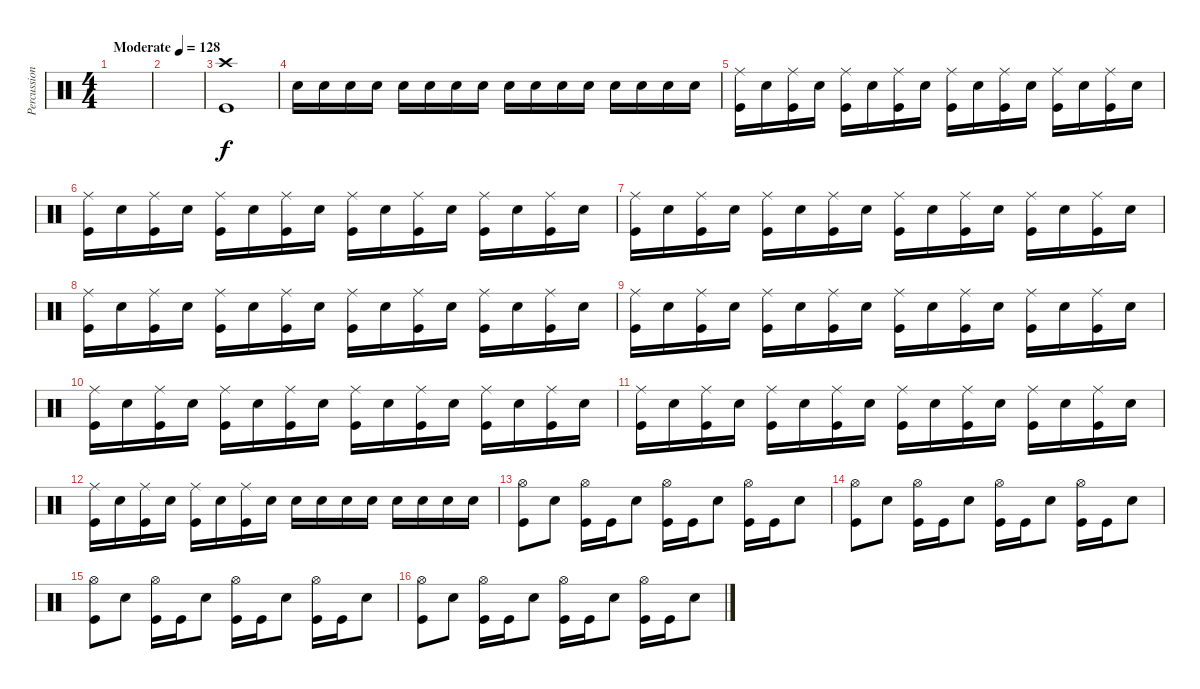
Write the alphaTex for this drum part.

\track ("Percussion" "Percussion") {instrument percussion}
\staff {score}
\articulation defaults
\ts (4 4)
\tempo (128 "Moderate")
\clef neutral
\ks c
|
|
("Crash high (hit)" "Kick (hit)").1 |
"Electric Snare (hit)".16{volume 3} "Electric Snare (hit)".16{volume 4} "Electric Snare (hit)".16 "Electric Snare (hit)".16{volume 5} "Electric Snare (hit)".16 "Electric Snare (hit)".16{volume 7} "Electric Snare (hit)".16 "Electric Snare (hit)".16{volume 7} "Electric Snare (hit)".16 "Electric Snare (hit)".16 "Electric Snare (hit)".16{volume 10} "Electric Snare (hit)".16 "Electric Snare (hit)".16{volume 13} "Electric Snare (hit)".16 "Electric Snare (hit)".16 "Electric Snare (hit)".16 |
("Ride (middle)" "Kick (hit)").16 "Electric Snare (hit)".16 ("Ride (middle)" "Kick (hit)").16 "Electric Snare (hit)".16 ("Ride (middle)" "Kick (hit)").16 "Electric Snare (hit)".16 ("Ride (middle)" "Kick (hit)").16 "Electric Snare (hit)".16 ("Ride (middle)" "Kick (hit)").16 "Electric Snare (hit)".16 ("Ride (middle)" "Kick (hit)").16 "Electric Snare (hit)".16 ("Ride (middle)" "Kick (hit)").16 "Electric Snare (hit)".16 ("Ride (middle)" "Kick (hit)").16 "Electric Snare (hit)".16 |
("Ride (middle)" "Kick (hit)").16 "Electric Snare (hit)".16 ("Ride (middle)" "Kick (hit)").16 "Electric Snare (hit)".16 ("Ride (middle)" "Kick (hit)").16 "Electric Snare (hit)".16 ("Ride (middle)" "Kick (hit)").16 "Electric Snare (hit)".16 ("Ride (middle)" "Kick (hit)").16 "Electric Snare (hit)".16 ("Ride (middle)" "Kick (hit)").16 "Electric Snare (hit)".16 ("Ride (middle)" "Kick (hit)").16 "Electric Snare (hit)".16 ("Ride (middle)" "Kick (hit)").16 "Electric Snare (hit)".16 |
("Ride (middle)" "Kick (hit)").16 "Electric Snare (hit)".16 ("Ride (middle)" "Kick (hit)").16 "Electric Snare (hit)".16 ("Ride (middle)" "Kick (hit)").16 "Electric Snare (hit)".16 ("Ride (middle)" "Kick (hit)").16 "Electric Snare (hit)".16 ("Ride (middle)" "Kick (hit)").16 "Electric Snare (hit)".16 ("Ride (middle)" "Kick (hit)").16 "Electric Snare (hit)".16 ("Ride (middle)" "Kick (hit)").16 "Electric Snare (hit)".16 ("Ride (middle)" "Kick (hit)").16 "Electric Snare (hit)".16 |
("Ride (middle)" "Kick (hit)").16 "Electric Snare (hit)".16 ("Ride (middle)" "Kick (hit)").16 "Electric Snare (hit)".16 ("Ride (middle)" "Kick (hit)").16 "Electric Snare (hit)".16 ("Ride (middle)" "Kick (hit)").16 "Electric Snare (hit)".16 ("Ride (middle)" "Kick (hit)").16 "Electric Snare (hit)".16 ("Ride (middle)" "Kick (hit)").16 "Electric Snare (hit)".16 ("Ride (middle)" "Kick (hit)").16 "Electric Snare (hit)".16 ("Ride (middle)" "Kick (hit)").16 "Electric Snare (hit)".16 |
("Ride (middle)" "Kick (hit)").16 "Electric Snare (hit)".16 ("Ride (middle)" "Kick (hit)").16 "Electric Snare (hit)".16 ("Ride (middle)" "Kick (hit)").16 "Electric Snare (hit)".16 ("Ride (middle)" "Kick (hit)").16 "Electric Snare (hit)".16 ("Ride (middle)" "Kick (hit)").16 "Electric Snare (hit)".16 ("Ride (middle)" "Kick (hit)").16 "Electric Snare (hit)".16 ("Ride (middle)" "Kick (hit)").16 "Electric Snare (hit)".16 ("Ride (middle)" "Kick (hit)").16 "Electric Snare (hit)".16 |
("Ride (middle)" "Kick (hit)").16 "Electric Snare (hit)".16 ("Ride (middle)" "Kick (hit)").16 "Electric Snare (hit)".16 ("Ride (middle)" "Kick (hit)").16 "Electric Snare (hit)".16 ("Ride (middle)" "Kick (hit)").16 "Electric Snare (hit)".16 ("Ride (middle)" "Kick (hit)").16 "Electric Snare (hit)".16 ("Ride (middle)" "Kick (hit)").16 "Electric Snare (hit)".16 ("Ride (middle)" "Kick (hit)").16 "Electric Snare (hit)".16 ("Ride (middle)" "Kick (hit)").16 "Electric Snare (hit)".16 |
("Ride (middle)" "Kick (hit)").16 "Electric Snare (hit)".16 ("Ride (middle)" "Kick (hit)").16 "Electric Snare (hit)".16 ("Ride (middle)" "Kick (hit)").16 "Electric Snare (hit)".16 ("Ride (middle)" "Kick (hit)").16 "Electric Snare (hit)".16 ("Ride (middle)" "Kick (hit)").16 "Electric Snare (hit)".16 ("Ride (middle)" "Kick (hit)").16 "Electric Snare (hit)".16 ("Ride (middle)" "Kick (hit)").16 "Electric Snare (hit)".16 ("Ride (middle)" "Kick (hit)").16 "Electric Snare (hit)".16 |
("Ride (middle)" "Kick (hit)").16 "Electric Snare (hit)".16 ("Ride (middle)" "Kick (hit)").16 "Electric Snare (hit)".16 ("Ride (middle)" "Kick (hit)").16 "Electric Snare (hit)".16 ("Ride (middle)" "Kick (hit)").16 "Electric Snare (hit)".16 "Electric Snare (hit)".16 "Electric Snare (hit)".16 "Electric Snare (hit)".16 "Electric Snare (hit)".16 "Electric Snare (hit)".16 "Electric Snare (hit)".16 "Electric Snare (hit)".16 "Electric Snare (hit)".16 |
("Hi-Hat (open)" "Kick (hit)").8 "Electric Snare (hit)".8 ("Hi-Hat (open)" "Kick (hit)").16 "Kick (hit)".16 "Electric Snare (hit)".8 ("Hi-Hat (open)" "Kick (hit)").16 "Kick (hit)".16 "Electric Snare (hit)".8 ("Hi-Hat (open)" "Kick (hit)").16 "Kick (hit)".16 "Electric Snare (hit)".8 |
("Hi-Hat (open)" "Kick (hit)").8 "Electric Snare (hit)".8 ("Hi-Hat (open)" "Kick (hit)").16 "Kick (hit)".16 "Electric Snare (hit)".8 ("Hi-Hat (open)" "Kick (hit)").16 "Kick (hit)".16 "Electric Snare (hit)".8 ("Hi-Hat (open)" "Kick (hit)").16 "Kick (hit)".16 "Electric Snare (hit)".8 |
("Hi-Hat (open)" "Kick (hit)").8 "Electric Snare (hit)".8 ("Hi-Hat (open)" "Kick (hit)").16 "Kick (hit)".16 "Electric Snare (hit)".8 ("Hi-Hat (open)" "Kick (hit)").16 "Kick (hit)".16 "Electric Snare (hit)".8 ("Hi-Hat (open)" "Kick (hit)").16 "Kick (hit)".16 "Electric Snare (hit)".8 |
("Hi-Hat (open)" "Kick (hit)").8 "Electric Snare (hit)".8 ("Hi-Hat (open)" "Kick (hit)").16 "Kick (hit)".16 "Electric Snare (hit)".8 ("Hi-Hat (open)" "Kick (hit)").16 "Kick (hit)".16 "Electric Snare (hit)".8 ("Hi-Hat (open)" "Kick (hit)").16 "Kick (hit)".16 "Electric Snare (hit)".8
